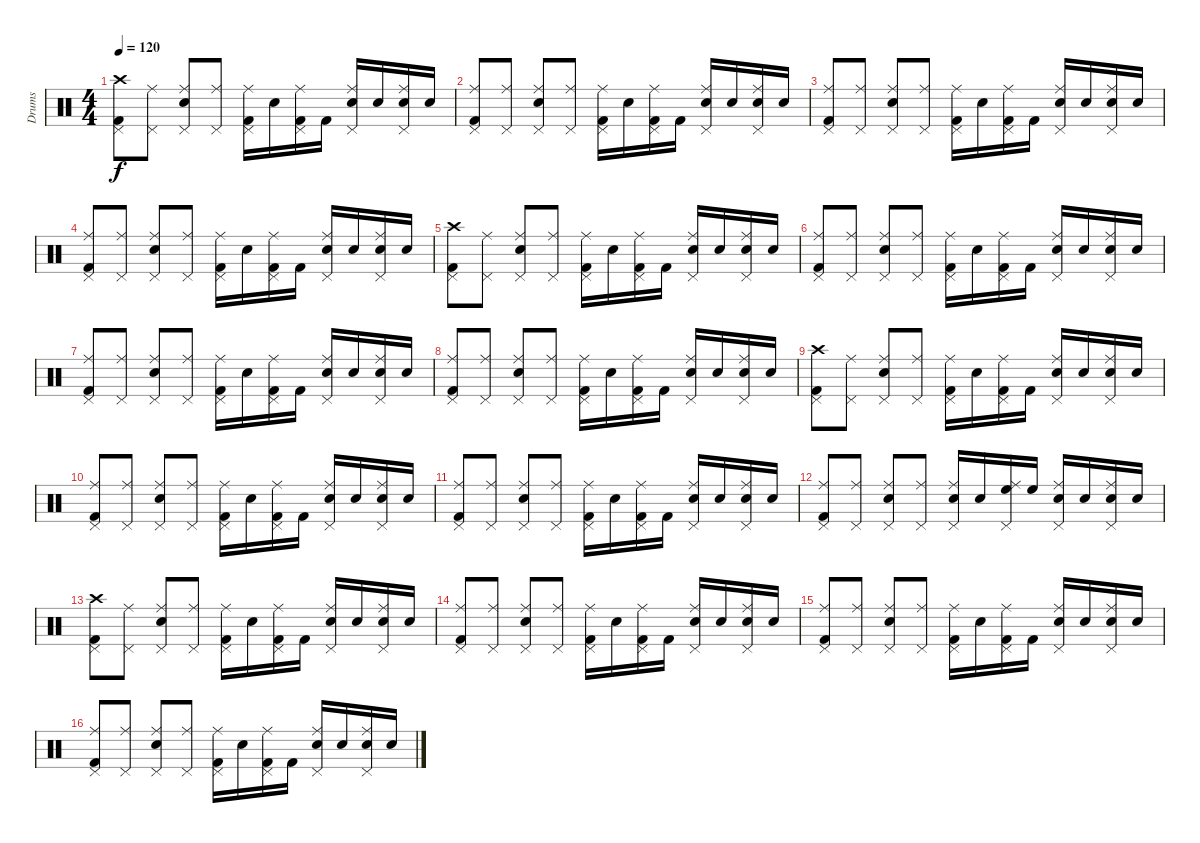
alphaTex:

\track ("Drums" "Drums") {instrument percussion}
\staff {score}
\articulation defaults
\ts (4 4)
\tempo 120
\clef neutral
\ks c
("Crash high (hit)" "Kick (hit) 2" "Pedal Hi-Hat (hit)").8{dy f} ("Ride (middle)" "Pedal Hi-Hat (hit)").8 ("Ride (middle)" "Electric Snare (hit)" "Pedal Hi-Hat (hit)").8 ("Ride (middle)" "Pedal Hi-Hat (hit)").8 ("Ride (middle)" "Kick (hit) 2" "Pedal Hi-Hat (hit)").16 "Electric Snare (hit)".16 ("Ride (middle)" "Kick (hit) 2" "Pedal Hi-Hat (hit)").16 "Kick (hit) 2".16 ("Ride (middle)" "Electric Snare (hit)" "Pedal Hi-Hat (hit)").16 "Electric Snare (hit)".16 ("Ride (middle)" "Electric Snare (hit)" "Pedal Hi-Hat (hit)").16 "Electric Snare (hit)".16 |
("Ride (middle)" "Kick (hit) 2" "Pedal Hi-Hat (hit)").8 ("Ride (middle)" "Pedal Hi-Hat (hit)").8 ("Ride (middle)" "Electric Snare (hit)" "Pedal Hi-Hat (hit)").8 ("Ride (middle)" "Pedal Hi-Hat (hit)").8 ("Ride (middle)" "Kick (hit) 2" "Pedal Hi-Hat (hit)").16 "Electric Snare (hit)".16 ("Ride (middle)" "Kick (hit) 2" "Pedal Hi-Hat (hit)").16 "Kick (hit) 2".16 ("Ride (middle)" "Electric Snare (hit)" "Pedal Hi-Hat (hit)").16 "Electric Snare (hit)".16 ("Ride (middle)" "Electric Snare (hit)" "Pedal Hi-Hat (hit)").16 "Electric Snare (hit)".16 |
("Ride (middle)" "Kick (hit) 2" "Pedal Hi-Hat (hit)").8 ("Ride (middle)" "Pedal Hi-Hat (hit)").8 ("Ride (middle)" "Electric Snare (hit)" "Pedal Hi-Hat (hit)").8 ("Ride (middle)" "Pedal Hi-Hat (hit)").8 ("Ride (middle)" "Kick (hit) 2" "Pedal Hi-Hat (hit)").16 "Electric Snare (hit)".16 ("Ride (middle)" "Kick (hit) 2" "Pedal Hi-Hat (hit)").16 "Kick (hit) 2".16 ("Ride (middle)" "Electric Snare (hit)" "Pedal Hi-Hat (hit)").16 "Electric Snare (hit)".16 ("Ride (middle)" "Electric Snare (hit)" "Pedal Hi-Hat (hit)").16 "Electric Snare (hit)".16 |
("Ride (middle)" "Kick (hit) 2" "Pedal Hi-Hat (hit)").8 ("Ride (middle)" "Pedal Hi-Hat (hit)").8 ("Ride (middle)" "Electric Snare (hit)" "Pedal Hi-Hat (hit)").8 ("Ride (middle)" "Pedal Hi-Hat (hit)").8 ("Ride (middle)" "Kick (hit) 2" "Pedal Hi-Hat (hit)").16 "Electric Snare (hit)".16 ("Ride (middle)" "Kick (hit) 2" "Pedal Hi-Hat (hit)").16 "Kick (hit) 2".16 ("Ride (middle)" "Electric Snare (hit)" "Pedal Hi-Hat (hit)").16 "Electric Snare (hit)".16 ("Ride (middle)" "Electric Snare (hit)" "Pedal Hi-Hat (hit)").16 "Electric Snare (hit)".16 |
("Crash high (hit)" "Kick (hit) 2" "Pedal Hi-Hat (hit)").8 ("Ride (middle)" "Pedal Hi-Hat (hit)").8 ("Ride (middle)" "Electric Snare (hit)" "Pedal Hi-Hat (hit)").8 ("Ride (middle)" "Pedal Hi-Hat (hit)").8 ("Ride (middle)" "Kick (hit) 2" "Pedal Hi-Hat (hit)").16 "Electric Snare (hit)".16 ("Ride (middle)" "Kick (hit) 2" "Pedal Hi-Hat (hit)").16 "Kick (hit) 2".16 ("Ride (middle)" "Electric Snare (hit)" "Pedal Hi-Hat (hit)").16 "Electric Snare (hit)".16 ("Ride (middle)" "Electric Snare (hit)" "Pedal Hi-Hat (hit)").16 "Electric Snare (hit)".16 |
("Ride (middle)" "Kick (hit) 2" "Pedal Hi-Hat (hit)").8 ("Ride (middle)" "Pedal Hi-Hat (hit)").8 ("Ride (middle)" "Electric Snare (hit)" "Pedal Hi-Hat (hit)").8 ("Ride (middle)" "Pedal Hi-Hat (hit)").8 ("Ride (middle)" "Kick (hit) 2" "Pedal Hi-Hat (hit)").16 "Electric Snare (hit)".16 ("Ride (middle)" "Kick (hit) 2" "Pedal Hi-Hat (hit)").16 "Kick (hit) 2".16 ("Ride (middle)" "Electric Snare (hit)" "Pedal Hi-Hat (hit)").16 "Electric Snare (hit)".16 ("Ride (middle)" "Electric Snare (hit)" "Pedal Hi-Hat (hit)").16 "Electric Snare (hit)".16 |
("Ride (middle)" "Kick (hit) 2" "Pedal Hi-Hat (hit)").8 ("Ride (middle)" "Pedal Hi-Hat (hit)").8 ("Ride (middle)" "Electric Snare (hit)" "Pedal Hi-Hat (hit)").8 ("Ride (middle)" "Pedal Hi-Hat (hit)").8 ("Ride (middle)" "Kick (hit) 2" "Pedal Hi-Hat (hit)").16 "Electric Snare (hit)".16 ("Ride (middle)" "Kick (hit) 2" "Pedal Hi-Hat (hit)").16 "Kick (hit) 2".16 ("Ride (middle)" "Electric Snare (hit)" "Pedal Hi-Hat (hit)").16 "Electric Snare (hit)".16 ("Ride (middle)" "Electric Snare (hit)" "Pedal Hi-Hat (hit)").16 "Electric Snare (hit)".16 |
("Ride (middle)" "Kick (hit) 2" "Pedal Hi-Hat (hit)").8 ("Ride (middle)" "Pedal Hi-Hat (hit)").8 ("Ride (middle)" "Electric Snare (hit)" "Pedal Hi-Hat (hit)").8 ("Ride (middle)" "Pedal Hi-Hat (hit)").8 ("Ride (middle)" "Kick (hit) 2" "Pedal Hi-Hat (hit)").16 "Electric Snare (hit)".16 ("Ride (middle)" "Kick (hit) 2" "Pedal Hi-Hat (hit)").16 "Kick (hit) 2".16 ("Ride (middle)" "Electric Snare (hit)" "Pedal Hi-Hat (hit)").16 "Electric Snare (hit)".16 ("Ride (middle)" "Electric Snare (hit)" "Pedal Hi-Hat (hit)").16 "Electric Snare (hit)".16 |
("Crash high (hit)" "Kick (hit) 2" "Pedal Hi-Hat (hit)").8 ("Ride (middle)" "Pedal Hi-Hat (hit)").8 ("Ride (middle)" "Electric Snare (hit)" "Pedal Hi-Hat (hit)").8 ("Ride (middle)" "Pedal Hi-Hat (hit)").8 ("Ride (middle)" "Kick (hit) 2" "Pedal Hi-Hat (hit)").16 "Electric Snare (hit)".16 ("Ride (middle)" "Kick (hit) 2" "Pedal Hi-Hat (hit)").16 "Kick (hit) 2".16 ("Ride (middle)" "Electric Snare (hit)" "Pedal Hi-Hat (hit)").16 "Electric Snare (hit)".16 ("Ride (middle)" "Electric Snare (hit)" "Pedal Hi-Hat (hit)").16 "Electric Snare (hit)".16 |
("Ride (middle)" "Kick (hit) 2" "Pedal Hi-Hat (hit)").8 ("Ride (middle)" "Pedal Hi-Hat (hit)").8 ("Ride (middle)" "Electric Snare (hit)" "Pedal Hi-Hat (hit)").8 ("Ride (middle)" "Pedal Hi-Hat (hit)").8 ("Ride (middle)" "Kick (hit) 2" "Pedal Hi-Hat (hit)").16 "Electric Snare (hit)".16 ("Ride (middle)" "Kick (hit) 2" "Pedal Hi-Hat (hit)").16 "Kick (hit) 2".16 ("Ride (middle)" "Electric Snare (hit)" "Pedal Hi-Hat (hit)").16 "Electric Snare (hit)".16 ("Ride (middle)" "Electric Snare (hit)" "Pedal Hi-Hat (hit)").16 "Electric Snare (hit)".16 |
("Ride (middle)" "Kick (hit) 2" "Pedal Hi-Hat (hit)").8 ("Ride (middle)" "Pedal Hi-Hat (hit)").8 ("Ride (middle)" "Electric Snare (hit)" "Pedal Hi-Hat (hit)").8 ("Ride (middle)" "Pedal Hi-Hat (hit)").8 ("Ride (middle)" "Kick (hit) 2" "Pedal Hi-Hat (hit)").16 "Electric Snare (hit)".16 ("Ride (middle)" "Kick (hit) 2" "Pedal Hi-Hat (hit)").16 "Kick (hit) 2".16 ("Ride (middle)" "Electric Snare (hit)" "Pedal Hi-Hat (hit)").16 "Electric Snare (hit)".16 ("Ride (middle)" "Electric Snare (hit)" "Pedal Hi-Hat (hit)").16 "Electric Snare (hit)".16 |
("Ride (middle)" "Kick (hit) 2" "Pedal Hi-Hat (hit)").8 ("Ride (middle)" "Pedal Hi-Hat (hit)").8 ("Ride (middle)" "Electric Snare (hit)" "Pedal Hi-Hat (hit)").8 ("Ride (middle)" "Pedal Hi-Hat (hit)").8 ("Ride (middle)" "Electric Snare (hit)" "Pedal Hi-Hat (hit)").16 "Electric Snare (hit)".16 ("Ride (middle)" "High Floor Tom (hit)" "Pedal Hi-Hat (hit)").16 "High Floor Tom (hit)".16 ("Ride (middle)" "Electric Snare (hit)" "Pedal Hi-Hat (hit)").16 "Electric Snare (hit)".16 ("Ride (middle)" "Electric Snare (hit)" "Pedal Hi-Hat (hit)").16 "Electric Snare (hit)".16 |
("Crash high (hit)" "Kick (hit) 2" "Pedal Hi-Hat (hit)").8 ("Ride (middle)" "Pedal Hi-Hat (hit)").8 ("Ride (middle)" "Electric Snare (hit)" "Pedal Hi-Hat (hit)").8 ("Ride (middle)" "Pedal Hi-Hat (hit)").8 ("Ride (middle)" "Kick (hit) 2" "Pedal Hi-Hat (hit)").16 "Electric Snare (hit)".16 ("Ride (middle)" "Kick (hit) 2" "Pedal Hi-Hat (hit)").16 "Kick (hit) 2".16 ("Ride (middle)" "Electric Snare (hit)" "Pedal Hi-Hat (hit)").16 "Electric Snare (hit)".16 ("Ride (middle)" "Electric Snare (hit)" "Pedal Hi-Hat (hit)").16 "Electric Snare (hit)".16 |
("Ride (middle)" "Kick (hit) 2" "Pedal Hi-Hat (hit)").8 ("Ride (middle)" "Pedal Hi-Hat (hit)").8 ("Ride (middle)" "Electric Snare (hit)" "Pedal Hi-Hat (hit)").8 ("Ride (middle)" "Pedal Hi-Hat (hit)").8 ("Ride (middle)" "Kick (hit) 2" "Pedal Hi-Hat (hit)").16 "Electric Snare (hit)".16 ("Ride (middle)" "Kick (hit) 2" "Pedal Hi-Hat (hit)").16 "Kick (hit) 2".16 ("Ride (middle)" "Electric Snare (hit)" "Pedal Hi-Hat (hit)").16 "Electric Snare (hit)".16 ("Ride (middle)" "Electric Snare (hit)" "Pedal Hi-Hat (hit)").16 "Electric Snare (hit)".16 |
("Ride (middle)" "Kick (hit) 2" "Pedal Hi-Hat (hit)").8 ("Ride (middle)" "Pedal Hi-Hat (hit)").8 ("Ride (middle)" "Electric Snare (hit)" "Pedal Hi-Hat (hit)").8 ("Ride (middle)" "Pedal Hi-Hat (hit)").8 ("Ride (middle)" "Kick (hit) 2" "Pedal Hi-Hat (hit)").16 "Electric Snare (hit)".16 ("Ride (middle)" "Kick (hit) 2" "Pedal Hi-Hat (hit)").16 "Kick (hit) 2".16 ("Ride (middle)" "Electric Snare (hit)" "Pedal Hi-Hat (hit)").16 "Electric Snare (hit)".16 ("Ride (middle)" "Electric Snare (hit)" "Pedal Hi-Hat (hit)").16 "Electric Snare (hit)".16 |
("Ride (middle)" "Kick (hit) 2" "Pedal Hi-Hat (hit)").8 ("Ride (middle)" "Pedal Hi-Hat (hit)").8 ("Ride (middle)" "Electric Snare (hit)" "Pedal Hi-Hat (hit)").8 ("Ride (middle)" "Pedal Hi-Hat (hit)").8 ("Ride (middle)" "Kick (hit) 2" "Pedal Hi-Hat (hit)").16 "Electric Snare (hit)".16 ("Ride (middle)" "Kick (hit) 2" "Pedal Hi-Hat (hit)").16 "Kick (hit) 2".16 ("Ride (middle)" "Electric Snare (hit)" "Pedal Hi-Hat (hit)").16 "Electric Snare (hit)".16 ("Ride (middle)" "Electric Snare (hit)" "Pedal Hi-Hat (hit)").16 "Electric Snare (hit)".16
